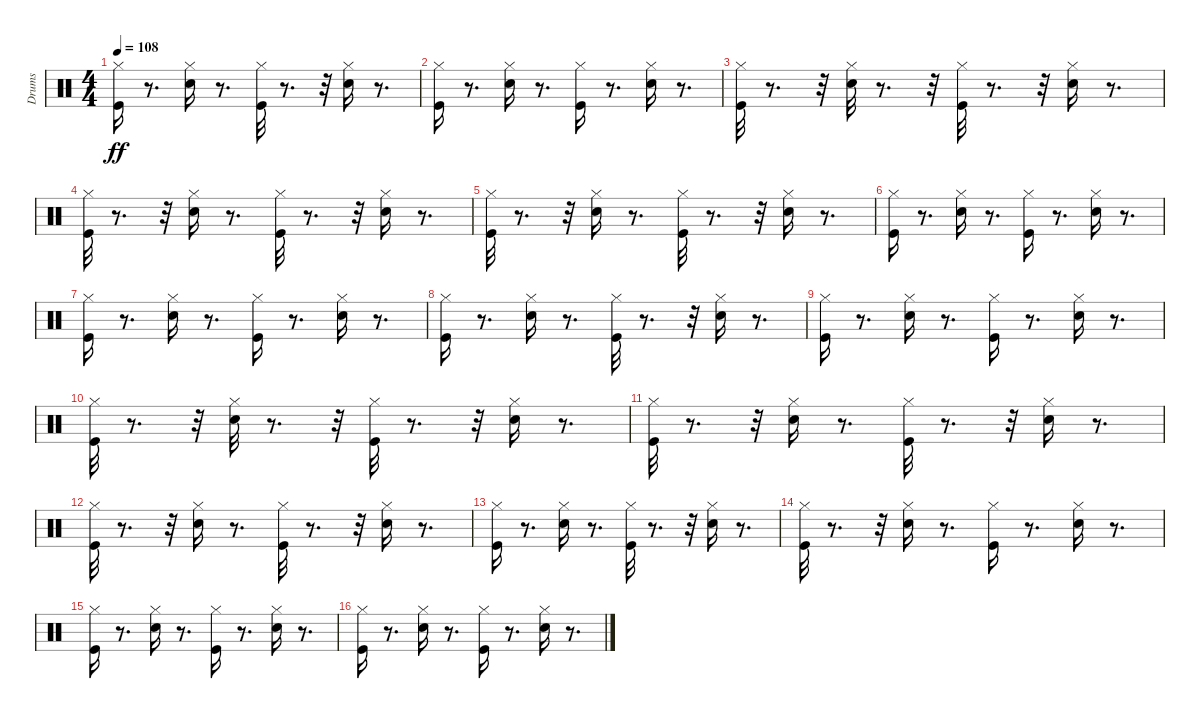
\track ("Drums" "Drums") {instrument percussion}
\staff {score}
\articulation defaults
\ts (4 4)
\tempo 108
\clef neutral
\ks c
("Hi-Hat (closed)" "Kick (hit)").16{dy ff} r.8{d} ("Hi-Hat (closed)" "Electric Snare (hit)").16 r.8{d} ("Kick (hit)" "Hi-Hat (closed)").32 r.8{d} r.32 ("Electric Snare (hit)" "Hi-Hat (closed)").16 r.8{d} |
("Kick (hit)" "Hi-Hat (closed)").16 r.8{d} ("Electric Snare (hit)" "Hi-Hat (closed)").16 r.8{d} ("Kick (hit)" "Hi-Hat (closed)").16 r.8{d} ("Electric Snare (hit)" "Hi-Hat (closed)").16 r.8{d} |
("Kick (hit)" "Hi-Hat (closed)").32 r.8{d} r.32 ("Electric Snare (hit)" "Hi-Hat (closed)").32 r.8{d} r.32 ("Kick (hit)" "Hi-Hat (closed)").32 r.8{d} r.32 ("Hi-Hat (closed)" "Electric Snare (hit)").16 r.8{d} |
("Kick (hit)" "Hi-Hat (closed)").32 r.8{d} r.32 ("Electric Snare (hit)" "Hi-Hat (closed)").16 r.8{d} ("Kick (hit)" "Hi-Hat (closed)").32 r.8{d} r.32 ("Electric Snare (hit)" "Hi-Hat (closed)").16 r.8{d} |
("Kick (hit)" "Hi-Hat (closed)").32 r.8{d} r.32 ("Electric Snare (hit)" "Hi-Hat (closed)").16 r.8{d} ("Kick (hit)" "Hi-Hat (closed)").32 r.8{d} r.32 ("Electric Snare (hit)" "Hi-Hat (closed)").16 r.8{d} |
("Hi-Hat (closed)" "Kick (hit)").16 r.8{d} ("Electric Snare (hit)" "Hi-Hat (closed)").16 r.8{d} ("Hi-Hat (closed)" "Kick (hit)").16 r.8{d} ("Electric Snare (hit)" "Hi-Hat (closed)").16 r.8{d} |
("Kick (hit)" "Hi-Hat (closed)").16 r.8{d} ("Electric Snare (hit)" "Hi-Hat (closed)").16 r.8{d} ("Kick (hit)" "Hi-Hat (closed)").16 r.8{d} ("Electric Snare (hit)" "Hi-Hat (closed)").16 r.8{d} |
("Kick (hit)" "Hi-Hat (closed)").16 r.8{d} ("Electric Snare (hit)" "Hi-Hat (closed)").16 r.8{d} ("Hi-Hat (closed)" "Kick (hit)").32 r.8{d} r.32 ("Hi-Hat (closed)" "Electric Snare (hit)").16 r.8{d} |
("Hi-Hat (closed)" "Kick (hit)").16 r.8{d} ("Hi-Hat (closed)" "Electric Snare (hit)").16 r.8{d} ("Hi-Hat (closed)" "Kick (hit)").16 r.8{d} ("Hi-Hat (closed)" "Electric Snare (hit)").16 r.8{d} |
("Hi-Hat (closed)" "Kick (hit)").32 r.8{d} r.32 ("Hi-Hat (closed)" "Electric Snare (hit)").32 r.8{d} r.32 ("Kick (hit)" "Hi-Hat (closed)").32 r.8{d} r.32 ("Electric Snare (hit)" "Hi-Hat (closed)").16 r.8{d} |
("Hi-Hat (closed)" "Kick (hit)").32 r.8{d} r.32 ("Hi-Hat (closed)" "Electric Snare (hit)").16 r.8{d} ("Hi-Hat (closed)" "Kick (hit)").32 r.8{d} r.32 ("Hi-Hat (closed)" "Electric Snare (hit)").16 r.8{d} |
("Hi-Hat (closed)" "Kick (hit)").32 r.8{d} r.32 ("Hi-Hat (closed)" "Electric Snare (hit)").16 r.8{d} ("Hi-Hat (closed)" "Kick (hit)").32 r.8{d} r.32 ("Hi-Hat (closed)" "Electric Snare (hit)").16 r.8{d} |
("Hi-Hat (closed)" "Kick (hit)").16 r.8{d} ("Electric Snare (hit)" "Hi-Hat (closed)").16 r.8{d} ("Kick (hit)" "Hi-Hat (closed)").32 r.8{d} r.32 ("Electric Snare (hit)" "Hi-Hat (closed)").16 r.8{d} |
("Kick (hit)" "Hi-Hat (closed)").32 r.8{d} r.32 ("Electric Snare (hit)" "Hi-Hat (closed)").16 r.8{d} ("Kick (hit)" "Hi-Hat (closed)").16 r.8{d} ("Hi-Hat (closed)" "Electric Snare (hit)").16 r.8{d} |
("Hi-Hat (closed)" "Kick (hit)").16 r.8{d} ("Hi-Hat (closed)" "Electric Snare (hit)").16 r.8{d} ("Kick (hit)" "Hi-Hat (closed)").16 r.8{d} ("Hi-Hat (closed)" "Electric Snare (hit)").16 r.8{d} |
("Hi-Hat (closed)" "Kick (hit)").16 r.8{d} ("Hi-Hat (closed)" "Electric Snare (hit)").16 r.8{d} ("Hi-Hat (closed)" "Kick (hit)").16 r.8{d} ("Electric Snare (hit)" "Hi-Hat (closed)").16 r.8{d}
